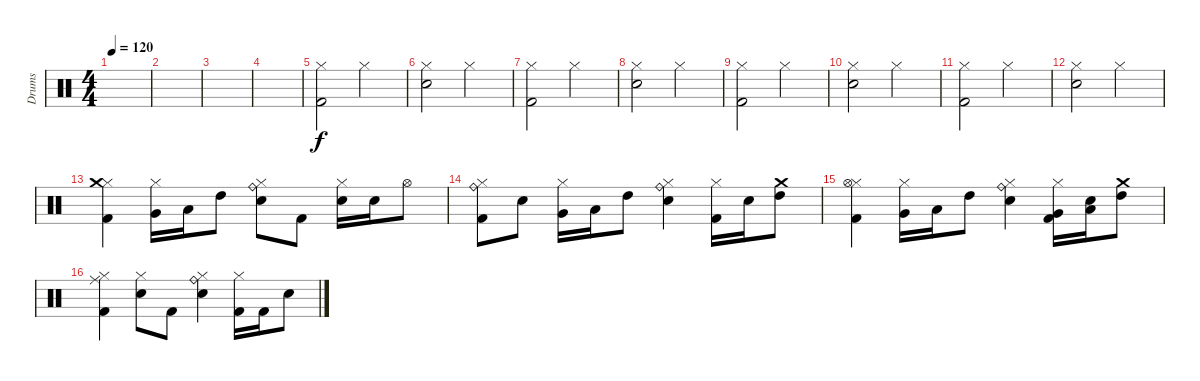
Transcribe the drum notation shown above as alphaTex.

\track ("Drums" "Drums") {instrument percussion}
\staff {score}
\articulation defaults
\ts (4 4)
\tempo 120
\clef neutral
\ks c
|
|
|
|
("Hi-Hat (closed)" "Kick (hit) 2").2 "Hi-Hat (closed)".2 |
("Hi-Hat (closed)" "Electric Snare (hit)").2 "Hi-Hat (closed)".2 |
("Hi-Hat (closed)" "Kick (hit) 2").2 "Hi-Hat (closed)".2 |
("Hi-Hat (closed)" "Electric Snare (hit)").2 "Hi-Hat (closed)".2 |
("Hi-Hat (closed)" "Kick (hit) 2").2 "Hi-Hat (closed)".2 |
("Hi-Hat (closed)" "Electric Snare (hit)").2 "Hi-Hat (closed)".2 |
("Hi-Hat (closed)" "Kick (hit) 2").2 "Hi-Hat (closed)".2 |
("Hi-Hat (closed)" "Electric Snare (hit)").2 "Hi-Hat (closed)".2 |
("Hi-Hat (closed)" "Crash medium (hit)" "Kick (hit) 2").4 ("Hi-Hat (closed)" "Very Low Tom (hit)").16 "Low Tom (hit)".16 "High Tom (hit)".8 ("Hi-Hat (closed)" "Ride (bell)" "Electric Snare (hit)").8 "Kick (hit) 2".8 ("Hi-Hat (closed)" "Electric Snare (hit)").16 "Electric Snare (hit)".16 "Hi-Hat (open)".8 |
("Hi-Hat (closed)" "Ride (bell)" "Kick (hit) 2").8 "Electric Snare (hit)".8 ("Hi-Hat (closed)" "Very Low Tom (hit)").16 "Low Tom (hit)".16 "High Tom (hit)".8 ("Hi-Hat (closed)" "Ride (bell)" "Electric Snare (hit)").4 ("Hi-Hat (closed)" "Kick (hit) 2").16 "Electric Snare (hit)".16 ("Crash medium (hit)" "High Tom (hit)").8 |
("Hi-Hat (closed)" "Hi-Hat (open)" "Kick (hit) 2").4 ("Hi-Hat (closed)" "Very Low Tom (hit)").16 "Low Tom (hit)".16 "High Tom (hit)".8 ("Hi-Hat (closed)" "Ride (bell)" "Electric Snare (hit)").4 ("Hi-Hat (closed)" "Very Low Tom (hit)" "Kick (hit) 2").16 ("Low Tom (hit)" "Snare (hit) 2").16 ("Crash medium (hit)" "High Tom (hit)").8 |
("Hi-Hat (closed)" "Ride (middle)" "Kick (hit) 2").4 ("Hi-Hat (closed)" "Electric Snare (hit)").8 "Kick (hit) 2".8 ("Hi-Hat (closed)" "Ride (bell)" "Electric Snare (hit)").4 ("Hi-Hat (closed)" "Kick (hit) 2").16 "Kick (hit) 2".16 "Electric Snare (hit)".8
